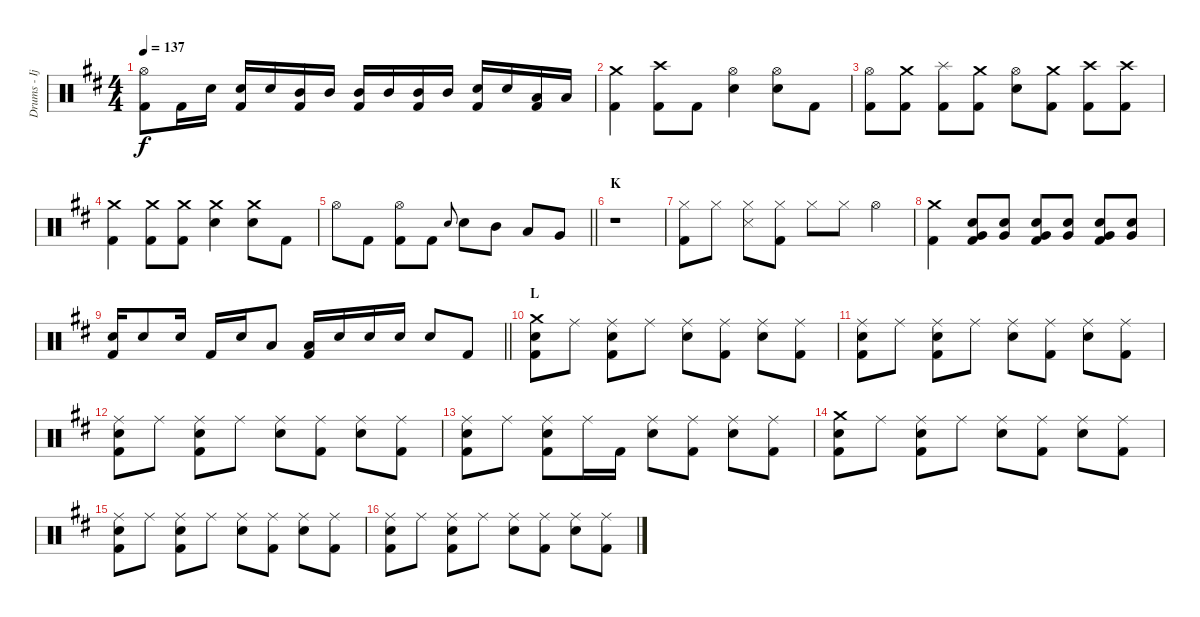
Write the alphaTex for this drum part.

\track ("Drums - Ijichi" "Drums - Ij") {instrument percussion}
\staff {score}
\articulation defaults
\ts (4 4)
\tempo 137
\clef neutral
\ks d
("Hi-Hat (open)" "Kick (hit) 2").8{dy f} "Kick (hit) 2".16 "Electric Snare (hit)".16 ("Electric Snare (hit)" "Kick (hit) 2").16 "Electric Snare (hit)".16 ("Mid Tom (hit)" "Kick (hit) 2").16 "Mid Tom (hit)".16 ("Mid Tom (hit)" "Kick (hit) 2").16 "Mid Tom (hit)".16 ("Mid Tom (hit)" "Kick (hit) 2").16 "Mid Tom (hit)".16 ("Electric Snare (hit)" "Kick (hit) 2").16 "Electric Snare (hit)".16 ("Low Tom (hit)" "Kick (hit) 2").16 "Low Tom (hit)".16 |
("Crash medium (hit)" "Kick (hit) 2").4 ("Crash high (hit)" "Kick (hit) 2").8 "Kick (hit) 2".8 ("Hi-Hat (open)" "Electric Snare (hit)").4 ("Hi-Hat (open)" "Electric Snare (hit)").8 "Kick (hit) 2".8 |
("Hi-Hat (open)" "Kick (hit) 2").8 ("Crash medium (hit)" "Kick (hit) 2").8 ("Splash (hit)" "Kick (hit) 2").8 ("Crash medium (hit)" "Kick (hit) 2").8 ("Hi-Hat (open)" "Electric Snare (hit)").8 ("Crash medium (hit)" "Kick (hit) 2").8 ("Crash high (hit)" "Kick (hit) 2").8 ("Crash high (hit)" "Kick (hit) 2").8 |
("Crash medium (hit)" "Kick (hit) 2").4 ("Crash medium (hit)" "Kick (hit) 2").8 ("Crash medium (hit)" "Kick (hit) 2").8 ("Crash medium (hit)" "Electric Snare (hit)").4 ("Crash medium (hit)" "Electric Snare (hit)").8 "Kick (hit) 2".8 |
\barLineRight lightlight "Hi-Hat (open)".8 "Kick (hit) 2".8
("Hi-Hat (open)" "Kick (hit) 2").8 "Kick (hit) 2".8 "Electric Snare (hit)".8{gr onbeat} "Electric Snare (hit)".8 "Mid Tom (hit)".8 "Low Tom (hit)".8 "Very Low Tom (hit)".8 |
\section ("" "K")
r.1 |
("Hi-Hat (closed)" "Kick (hit) 2").8 "Hi-Hat (closed)".8 ("Hi-Hat (closed)" "Snare (side stick) 3").8 ("Hi-Hat (closed)" "Kick (hit) 2").8 "Hi-Hat (closed)".8 "Hi-Hat (closed)".8 "Hi-Hat (open)".4 |
("Crash medium (hit)" "Kick (hit) 2").4 ("Electric Snare (hit)" "Very Low Tom (hit)" "Kick (hit) 2").8{volume 9} ("Electric Snare (hit)" "Very Low Tom (hit)").8{volume 13} ("Electric Snare (hit)" "Very Low Tom (hit)" "Kick (hit) 2").8 ("Electric Snare (hit)" "Very Low Tom (hit)").8 ("Electric Snare (hit)" "Very Low Tom (hit)" "Kick (hit) 2").8 ("Electric Snare (hit)" "Very Low Tom (hit)").8 |
\barLineRight lightlight
("Electric Snare (hit)" "Kick (hit) 2").16 "Electric Snare (hit)".8 "Electric Snare (hit)".16 "Kick (hit) 2".16 "Electric Snare (hit)".16 "Low Tom (hit)".8 ("Low Tom (hit)" "Kick (hit) 2").16 "Electric Snare (hit)".16 "Electric Snare (hit)".16 "Electric Snare (hit)".16 "Electric Snare (hit)".8 "Kick (hit) 2".8 |
\section ("" "L")
("Crash medium (hit)" "Electric Snare (hit)" "Kick (hit) 2").8 "Ride (middle)".8 ("Ride (middle)" "Electric Snare (hit)" "Kick (hit) 2").8 "Ride (middle)".8 ("Ride (middle)" "Electric Snare (hit)").8 ("Ride (middle)" "Kick (hit) 2").8 ("Ride (middle)" "Electric Snare (hit)").8 ("Ride (middle)" "Kick (hit) 2").8 |
("Ride (middle)" "Electric Snare (hit)" "Kick (hit) 2").8 "Ride (middle)".8 ("Ride (middle)" "Electric Snare (hit)" "Kick (hit) 2").8 "Ride (middle)".8 ("Ride (middle)" "Electric Snare (hit)").8 ("Ride (middle)" "Kick (hit) 2").8 ("Ride (middle)" "Electric Snare (hit)").8 ("Ride (middle)" "Kick (hit) 2").8 |
("Ride (middle)" "Electric Snare (hit)" "Kick (hit) 2").8 "Ride (middle)".8 ("Ride (middle)" "Electric Snare (hit)" "Kick (hit) 2").8 "Ride (middle)".8 ("Ride (middle)" "Electric Snare (hit)").8 ("Ride (middle)" "Kick (hit) 2").8 ("Ride (middle)" "Electric Snare (hit)").8 ("Ride (middle)" "Kick (hit) 2").8 |
("Ride (middle)" "Electric Snare (hit)" "Kick (hit) 2").8 "Ride (middle)".8 ("Ride (middle)" "Electric Snare (hit)" "Kick (hit) 2").8 "Ride (middle)".16 "Kick (hit) 2".16 ("Ride (middle)" "Electric Snare (hit)").8 ("Ride (middle)" "Kick (hit) 2").8 ("Ride (middle)" "Electric Snare (hit)").8 ("Ride (middle)" "Kick (hit) 2").8 |
("Crash medium (hit)" "Electric Snare (hit)" "Kick (hit) 2").8 "Ride (middle)".8 ("Ride (middle)" "Electric Snare (hit)" "Kick (hit) 2").8 "Ride (middle)".8 ("Ride (middle)" "Electric Snare (hit)").8 ("Ride (middle)" "Kick (hit) 2").8 ("Ride (middle)" "Electric Snare (hit)").8 ("Ride (middle)" "Kick (hit) 2").8 |
("Ride (middle)" "Electric Snare (hit)" "Kick (hit) 2").8 "Ride (middle)".8 ("Ride (middle)" "Electric Snare (hit)" "Kick (hit) 2").8 "Ride (middle)".8 ("Ride (middle)" "Electric Snare (hit)").8 ("Ride (middle)" "Kick (hit) 2").8 ("Ride (middle)" "Electric Snare (hit)").8 ("Ride (middle)" "Kick (hit) 2").8 |
("Ride (middle)" "Electric Snare (hit)" "Kick (hit) 2").8 "Ride (middle)".8 ("Ride (middle)" "Electric Snare (hit)" "Kick (hit) 2").8 "Ride (middle)".8 ("Ride (middle)" "Electric Snare (hit)").8 ("Ride (middle)" "Kick (hit) 2").8 ("Ride (middle)" "Electric Snare (hit)").8 ("Ride (middle)" "Kick (hit) 2").8
